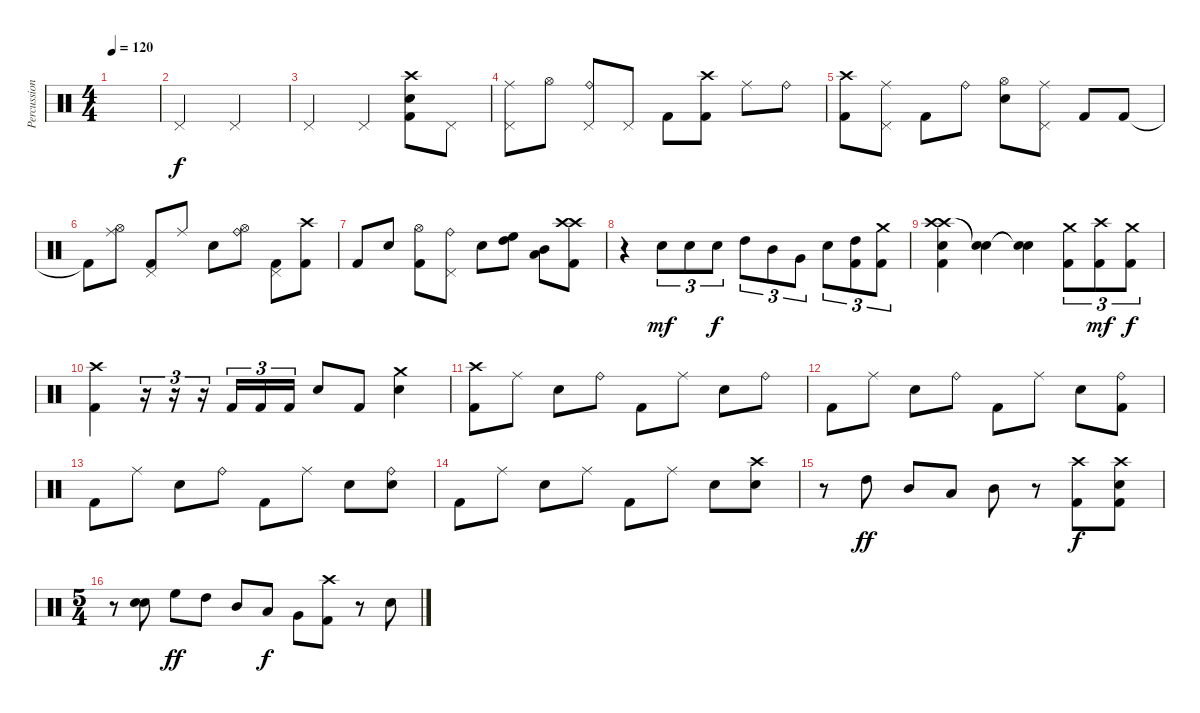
\track ("Percussioni" "Percussion") {instrument percussion}
\staff {score}
\articulation defaults
\ts (4 4)
\tempo 120
\clef neutral
\ks c
|
"Pedal Hi-Hat (hit)".2 "Pedal Hi-Hat (hit)".2 |
"Pedal Hi-Hat (hit)".2 "Pedal Hi-Hat (hit)".4 ("Crash high (hit)" "Electric Snare (hit)" "Kick (hit) 2").8 "Pedal Hi-Hat (hit)".8 |
("Ride (middle)" "Pedal Hi-Hat (hit)").8 "Hi-Hat (open)".8 ("Ride (bell)" "Pedal Hi-Hat (hit)").8 "Pedal Hi-Hat (hit)".8 "Kick (hit) 2".8 ("Crash high (hit)" "Kick (hit) 2").8 "Ride (middle)".8 "Ride (bell)".8 |
("Crash high (hit)" "Kick (hit) 2").8 ("Pedal Hi-Hat (hit)" "Ride (middle)").8 "Kick (hit) 2".8 "Ride (bell)".8 ("Hi-Hat (open)" "Electric Snare (hit)").8 ("Pedal Hi-Hat (hit)" "Ride (middle)").8 "Kick (hit) 2".8 "Kick (hit) 2".8 |
"Kick (hit) 2"{t}.8 ("Hi-Hat (open)" "Ride (middle)").8 ("Pedal Hi-Hat (hit)" "Kick (hit) 2").8 "Ride (middle)".8 "Electric Snare (hit)".8 ("Hi-Hat (open)" "Ride (bell)").8 ("Pedal Hi-Hat (hit)" "Kick (hit) 2").8 ("Crash high (hit)" "Kick (hit) 2").8 |
"Kick (hit) 2".8 "Electric Snare (hit)".8 ("Hi-Hat (open)" "Kick (hit) 2").8 ("Pedal Hi-Hat (hit)" "Ride (bell)").8 "Electric Snare (hit)".8 ("High Tom (hit)" "High Floor Tom (hit)").8{bd 240} ("Mid Tom (hit)" "Low Tom (hit)").8{bd 120} ("Crash high (hit)" "Crash high (hit)" "Kick (hit) 2").8 |
r.4 "Electric Snare (hit)".8{tu (3 2) dy mf} "Electric Snare (hit)".8{tu (3 2)} "Electric Snare (hit)".8{tu (3 2) dy f} "High Tom (hit)".8{tu (3 2)} "Mid Tom (hit)".8{tu (3 2)} "Very Low Tom (hit)".8{tu (3 2)} "Electric Snare (hit)".8{tu (3 2)} ("High Tom (hit)" "Kick (hit) 2").8{tu (3 2)} ("Crash medium (hit)" "Kick (hit) 2").8{tu (3 2)} |
("Crash high (hit)" "Crash high (hit)" "Kick (hit) 2" "Electric Snare (hit)").4 ("Snare (hit)"{t} "Snare (hit)"{t}).4 ("Snare (hit)"{t} "Snare (hit)"{t}).4 ("Crash medium (hit)" "Kick (hit) 2").8{tu (3 2)} ("Crash high (hit)" "Kick (hit) 2").8{tu (3 2) dy mf} ("Crash medium (hit)" "Kick (hit) 2").8{tu (3 2) dy f} |
("Crash high (hit)" "Kick (hit) 2").4 r.16{tu (3 2)} r.16{tu (3 2)} r.16{tu (3 2)} "Kick (hit) 2".16{tu (3 2)} "Kick (hit) 2".16{tu (3 2)} "Kick (hit) 2".16{tu (3 2)} "Electric Snare (hit)".8 "Kick (hit) 2".8 ("Crash medium (hit)" "Electric Snare (hit)").4 |
("Crash high (hit)" "Kick (hit) 2").8 "Ride (middle)".8 "Electric Snare (hit)".8 "Ride (bell)".8 "Kick (hit) 2".8 "Ride (middle)".8 "Electric Snare (hit)".8 "Ride (bell)".8 |
"Kick (hit) 2".8 "Ride (middle)".8 "Electric Snare (hit)".8 "Ride (bell)".8 "Kick (hit) 2".8 "Ride (middle)".8 "Electric Snare (hit)".8 ("Ride (bell)" "Kick (hit) 2").8 |
"Kick (hit) 2".8 "Ride (middle)".8 "Electric Snare (hit)".8 "Ride (bell)".8 "Kick (hit) 2".8 "Ride (middle)".8 "Electric Snare (hit)".8 ("Ride (bell)" "Electric Snare (hit)").8 |
"Kick (hit) 2".8 "Ride (middle)".8 "Electric Snare (hit)".8 "Ride (middle)".8 "Kick (hit) 2".8 "Ride (middle)".8 "Electric Snare (hit)".8 ("Crash high (hit)" "Electric Snare (hit)").8 |
r.8 "High Tom (hit)".8{dy ff} "Mid Tom (hit)".8 "Low Tom (hit)".8 "Mid Tom (hit)".8 r.8 ("Crash high (hit)" "Kick (hit) 2").8{dy f} ("Electric Snare (hit)" "Crash high (hit)" "Kick (hit) 2").8 |
\ts (5 4)
r.8 ("Electric Snare (hit)" "Electric Snare (hit)").8{bd 480} "High Floor Tom (hit)".8{dy ff} "High Tom (hit)".8 "Mid Tom (hit)".8 "Low Tom (hit)".8{dy f} "Very Low Tom (hit)".8 ("Crash high (hit)" "Kick (hit) 2").8 r.8 "Electric Snare (hit)".8
